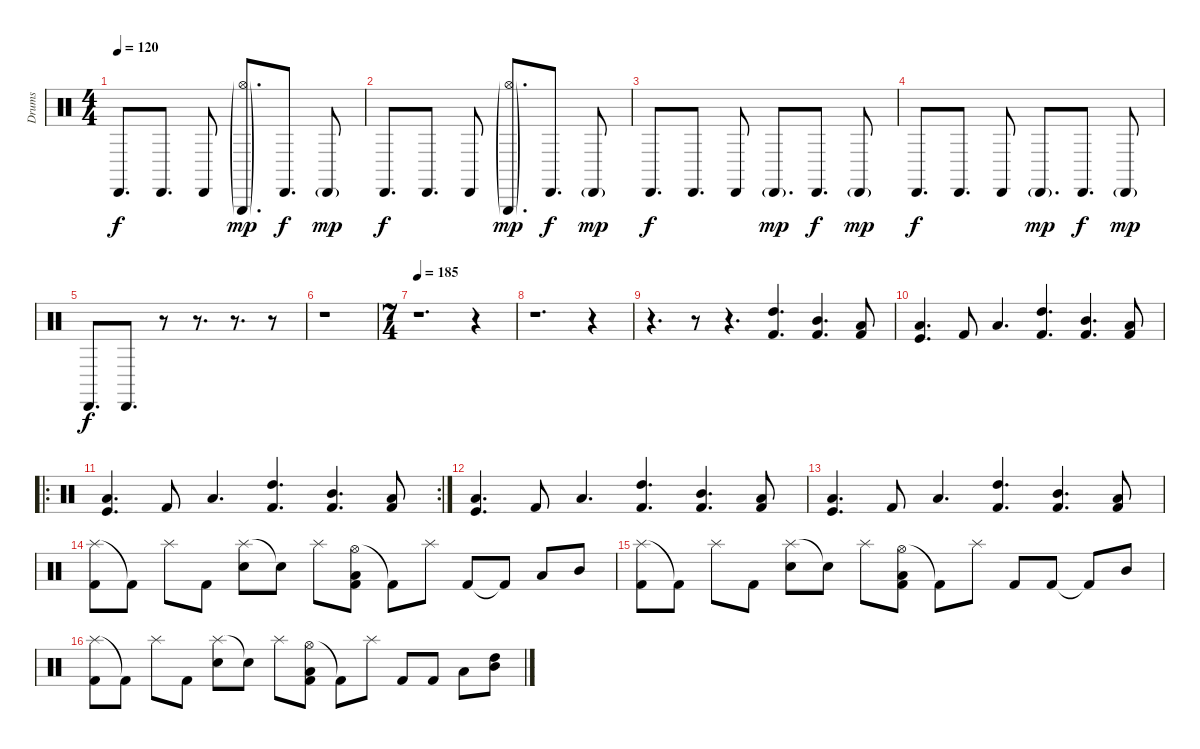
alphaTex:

\track ("Drums" "Drums") {instrument percussion}
\staff {score}
\articulation defaults
\ts (4 4)
\tempo 120
\clef neutral
\ks c "Cabasa (hit)".8{d dy f} "Cabasa (hit)".8{d} "Cabasa (hit)".8
("Triangle (hit)"{g} "Hi-Hat (open)"{g}).8{d dy mp} "Cabasa (hit)".8{d dy f} "Cabasa (hit)"{g}.8{dy mp} |
"Cabasa (hit)".8{d dy f} "Cabasa (hit)".8{d} "Cabasa (hit)".8 ("Triangle (hit)"{g} "Hi-Hat (open)"{g}).8{d dy mp} "Cabasa (hit)".8{d dy f} "Cabasa (hit)"{g}.8{dy mp} |
"Cabasa (hit)".8{d dy f} "Cabasa (hit)".8{d} "Cabasa (hit)".8 "Cabasa (hit)"{g}.8{d dy mp} "Cabasa (hit)".8{d dy f} "Cabasa (hit)"{g}.8{dy mp} |
"Cabasa (hit)".8{d dy f} "Cabasa (hit)".8{d} "Cabasa (hit)".8 "Cabasa (hit)"{g}.8{d dy mp} "Cabasa (hit)".8{d dy f} "Cabasa (hit)"{g}.8{dy mp} |
"Cabasa (hit)".8{d dy f} "Cabasa (hit)".8{d} r.8 r.8{d} r.8{d} r.8 |
r.1 |
\ts (7 4)
\tempo 185
r.1{d} r.4 |
r.1{d} r.4 |
r.4{d} r.8 r.4{d} ("High Tom (hit)" "Kick (hit) 2").4{d} ("Mid Tom (hit)" "Kick (hit) 2").4{d} ("Low Tom (hit)" "Kick (hit) 2").8 |
("Kick (hit)" "Low Tom (hit)").4{d} "Kick (hit) 2".8 "Low Tom (hit)".4{d} ("High Tom (hit)" "Kick (hit) 2").4{d} ("Mid Tom (hit)" "Kick (hit) 2").4{d} ("Low Tom (hit)" "Kick (hit) 2").8 |
\ro
\rc 2
("Kick (hit)" "Low Tom (hit)").4{d} "Kick (hit) 2".8 "Low Tom (hit)".4{d} ("High Tom (hit)" "Kick (hit) 2").4{d} ("Mid Tom (hit)" "Kick (hit) 2").4{d} ("Low Tom (hit)" "Kick (hit) 2").8 |
("Kick (hit)" "Low Tom (hit)").4{d} "Kick (hit) 2".8 "Low Tom (hit)".4{d} ("High Tom (hit)" "Kick (hit) 2").4{d} ("Mid Tom (hit)" "Kick (hit) 2").4{d} ("Low Tom (hit)" "Kick (hit) 2").8 |
("Kick (hit)" "Low Tom (hit)").4{d} "Kick (hit) 2".8 "Low Tom (hit)".4{d} ("High Tom (hit)" "Kick (hit) 2").4{d} ("Mid Tom (hit)" "Kick (hit) 2").4{d} ("Low Tom (hit)" "Kick (hit) 2").8 |
("Splash (hit)" "Kick (hit) 2").8 "Kick (hit) 2"{t}.8 "Splash (hit)".8 "Kick (hit) 2".8 ("Splash (hit)" "Electric Snare (hit)").8 "Electric Snare (hit)"{t}.8 "Splash (hit)".8 ("Hi-Hat (open)" "Low Tom (hit)" "Kick (hit) 2").8 "Kick (hit) 2"{t}.8 "Splash (hit)".8 "Kick (hit) 2".8 "Kick (hit) 2"{t}.8 "Low Tom (hit)".8 "Mid Tom (hit)".8 |
("Splash (hit)" "Kick (hit) 2").8 "Kick (hit) 2"{t}.8 "Splash (hit)".8 "Kick (hit) 2".8 ("Splash (hit)" "Electric Snare (hit)").8 "Electric Snare (hit)"{t}.8 "Splash (hit)".8 ("Hi-Hat (open)" "Low Tom (hit)" "Kick (hit) 2").8 "Kick (hit) 2"{t}.8 "Splash (hit)".8 "Kick (hit) 2".8 "Kick (hit) 2".8 "Kick (hit) 2"{t}.8 "Mid Tom (hit)".8 |
("Splash (hit)" "Kick (hit) 2").8 "Kick (hit) 2"{t}.8 "Splash (hit)".8 "Kick (hit) 2".8 ("Splash (hit)" "Electric Snare (hit)").8 "Electric Snare (hit)"{t}.8 "Splash (hit)".8 ("Hi-Hat (open)" "Low Tom (hit)" "Kick (hit) 2").8 "Kick (hit) 2"{t}.8 "Splash (hit)".8 "Kick (hit) 2".8 "Kick (hit) 2".8 "Low Tom (hit)".8 ("High Tom (hit)" "Mid Tom (hit)").8
